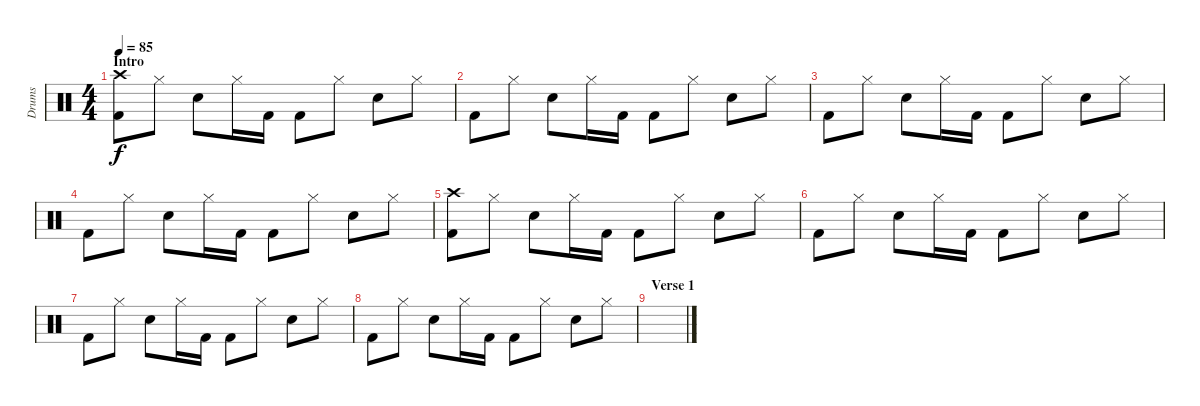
\track ("Drums" "Drums") {instrument percussion}
\staff {score}
\articulation defaults
\ts (4 4)
\section ("" "Intro")
\tempo 85
\clef neutral
\ks c
("Crash high (hit)" "Kick (hit) 2").8{dy f} "Hi-Hat (closed)".8 "Electric Snare (hit)".8 "Hi-Hat (closed)".16 "Kick (hit) 2".16 "Kick (hit) 2".8 "Hi-Hat (closed)".8 "Electric Snare (hit)".8 "Hi-Hat (closed)".8 |
"Kick (hit) 2".8 "Hi-Hat (closed)".8 "Electric Snare (hit)".8 "Hi-Hat (closed)".16 "Kick (hit) 2".16 "Kick (hit) 2".8 "Hi-Hat (closed)".8 "Electric Snare (hit)".8 "Hi-Hat (closed)".8 |
"Kick (hit) 2".8 "Hi-Hat (closed)".8 "Electric Snare (hit)".8 "Hi-Hat (closed)".16 "Kick (hit) 2".16 "Kick (hit) 2".8 "Hi-Hat (closed)".8 "Electric Snare (hit)".8 "Hi-Hat (closed)".8 |
"Kick (hit) 2".8 "Hi-Hat (closed)".8 "Electric Snare (hit)".8 "Hi-Hat (closed)".16 "Kick (hit) 2".16 "Kick (hit) 2".8 "Hi-Hat (closed)".8 "Electric Snare (hit)".8 "Hi-Hat (closed)".8 |
("Crash high (hit)" "Kick (hit) 2").8 "Hi-Hat (closed)".8 "Electric Snare (hit)".8 "Hi-Hat (closed)".16 "Kick (hit) 2".16 "Kick (hit) 2".8 "Hi-Hat (closed)".8 "Electric Snare (hit)".8 "Hi-Hat (closed)".8 |
"Kick (hit) 2".8 "Hi-Hat (closed)".8 "Electric Snare (hit)".8 "Hi-Hat (closed)".16 "Kick (hit) 2".16 "Kick (hit) 2".8 "Hi-Hat (closed)".8 "Electric Snare (hit)".8 "Hi-Hat (closed)".8 |
"Kick (hit) 2".8 "Hi-Hat (closed)".8 "Electric Snare (hit)".8 "Hi-Hat (closed)".16 "Kick (hit) 2".16 "Kick (hit) 2".8 "Hi-Hat (closed)".8 "Electric Snare (hit)".8 "Hi-Hat (closed)".8 |
"Kick (hit) 2".8 "Hi-Hat (closed)".8 "Electric Snare (hit)".8 "Hi-Hat (closed)".16 "Kick (hit) 2".16 "Kick (hit) 2".8 "Hi-Hat (closed)".8 "Electric Snare (hit)".8 "Hi-Hat (closed)".8 |
\section ("" "Verse 1")
